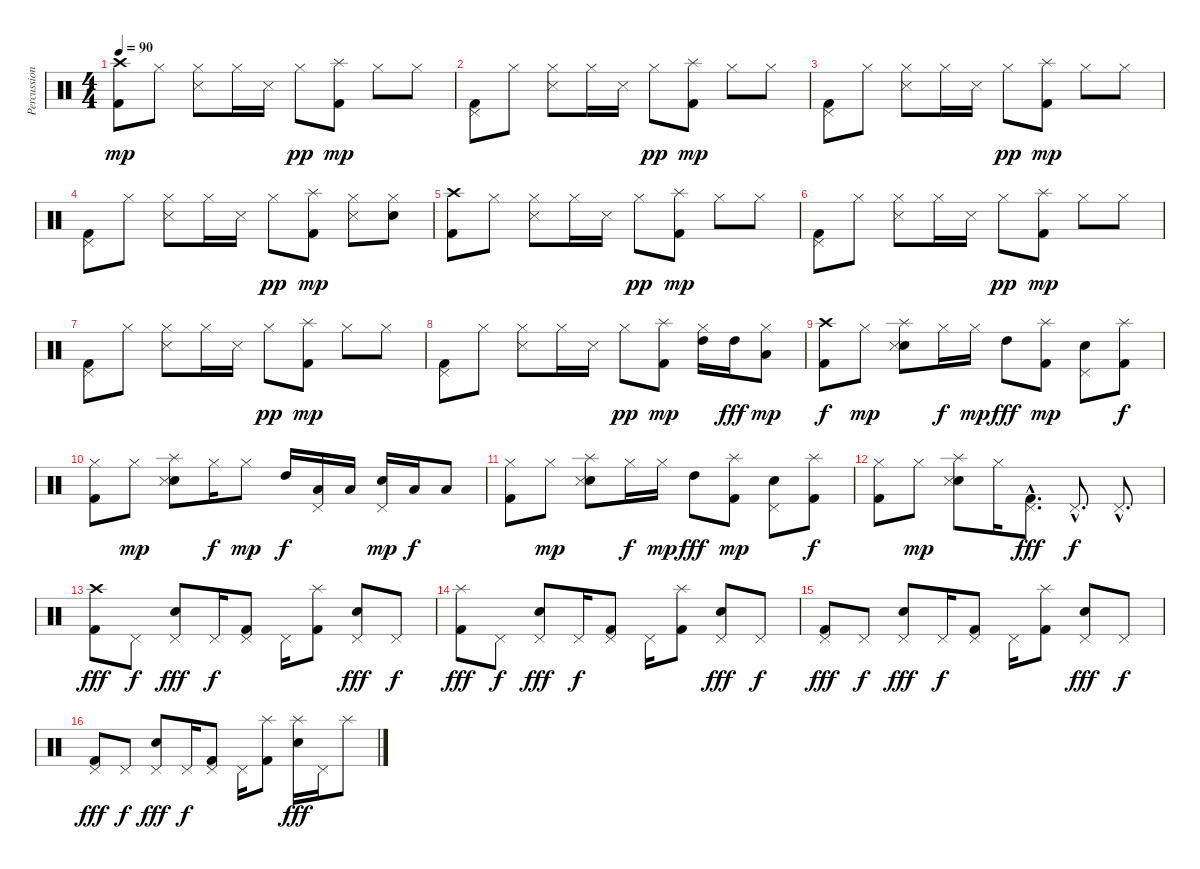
\track ("Percussion" "Percussion") {instrument percussion}
\staff {score}
\articulation defaults
\ts (4 4)
\tempo 90
\clef neutral
\ks c
("Kick (hit) 2" "Crash high (hit)").8{dy mp} "Hi-Hat (closed)".8 ("Snare (side stick) 3" "Hi-Hat (closed)").8 "Hi-Hat (closed)".16 "Snare (side stick) 3".16 "Hi-Hat (closed)".8{dy pp} ("Kick (hit) 2" "Splash (hit)").8{dy mp} "Hi-Hat (closed)".8 "Hi-Hat (closed)".8 |
("Kick (hit) 2" "Pedal Hi-Hat (hit)").8 "Hi-Hat (closed)".8 ("Snare (side stick) 3" "Hi-Hat (closed)").8 "Hi-Hat (closed)".16 "Snare (side stick) 3".16 "Hi-Hat (closed)".8{dy pp} ("Kick (hit) 2" "Splash (hit)").8{dy mp} "Hi-Hat (closed)".8 "Hi-Hat (closed)".8 |
("Kick (hit) 2" "Pedal Hi-Hat (hit)").8 "Hi-Hat (closed)".8 ("Snare (side stick) 3" "Hi-Hat (closed)").8 "Hi-Hat (closed)".16 "Snare (side stick) 3".16 "Hi-Hat (closed)".8{dy pp} ("Kick (hit) 2" "Splash (hit)").8{dy mp} "Hi-Hat (closed)".8 "Hi-Hat (closed)".8 |
("Kick (hit) 2" "Pedal Hi-Hat (hit)").8 "Hi-Hat (closed)".8 ("Snare (side stick) 3" "Hi-Hat (closed)").8 "Hi-Hat (closed)".16 "Snare (side stick) 3".16 "Hi-Hat (closed)".8{dy pp} ("Kick (hit) 2" "Splash (hit)").8{dy mp} ("Snare (side stick) 3" "Hi-Hat (closed)").8 ("Electric Snare (hit)" "Hi-Hat (closed)").8 |
("Kick (hit) 2" "Crash high (hit)").8 "Hi-Hat (closed)".8 ("Snare (side stick) 3" "Hi-Hat (closed)").8 "Hi-Hat (closed)".16 "Snare (side stick) 3".16 "Hi-Hat (closed)".8{dy pp} ("Kick (hit) 2" "Splash (hit)").8{dy mp} "Hi-Hat (closed)".8 "Hi-Hat (closed)".8 |
("Kick (hit) 2" "Pedal Hi-Hat (hit)").8 "Hi-Hat (closed)".8 ("Snare (side stick) 3" "Hi-Hat (closed)").8 "Hi-Hat (closed)".16 "Snare (side stick) 3".16 "Hi-Hat (closed)".8{dy pp} ("Kick (hit) 2" "Splash (hit)").8{dy mp} "Hi-Hat (closed)".8 "Hi-Hat (closed)".8 |
("Kick (hit) 2" "Pedal Hi-Hat (hit)").8 "Hi-Hat (closed)".8 ("Snare (side stick) 3" "Hi-Hat (closed)").8 "Hi-Hat (closed)".16 "Snare (side stick) 3".16 "Hi-Hat (closed)".8{dy pp} ("Kick (hit) 2" "Splash (hit)").8{dy mp} "Hi-Hat (closed)".8 "Hi-Hat (closed)".8 |
("Kick (hit) 2" "Pedal Hi-Hat (hit)").8 "Hi-Hat (closed)".8 ("Snare (side stick) 3" "Hi-Hat (closed)").8 "Hi-Hat (closed)".16 "Snare (side stick) 3".16 "Hi-Hat (closed)".8{dy pp} ("Kick (hit) 2" "Splash (hit)").8{dy mp} ("High Tom (hit)" "Hi-Hat (closed)").16 "High Tom (hit)".16{dy fff} ("Low Tom (hit)" "Hi-Hat (closed)").8{dy mp} |
("Kick (hit) 2" "Crash high (hit)").8{dy f} "Hi-Hat (closed)".8{dy mp} ("Electric Snare (hit)" "Snare (side stick) 3" "Splash (hit)").8 "Hi-Hat (closed)".16{dy f} "Hi-Hat (closed)".16{dy mp} "High Tom (hit)".8{dy fff} ("Kick (hit) 2" "Splash (hit)").8{dy mp} ("Electric Snare (hit)" "Pedal Hi-Hat (hit)").8 ("Kick (hit) 2" "Splash (hit)").8{dy f} |
("Kick (hit) 2" "Hi-Hat (closed)").8 "Hi-Hat (closed)".8{dy mp} ("Electric Snare (hit)" "Snare (side stick) 3" "Splash (hit)").8 "Hi-Hat (closed)".16{dy f} "Hi-Hat (closed)".8{dy mp} "High Tom (hit)".16{dy f} ("Low Tom (hit)" "Pedal Hi-Hat (hit)").16 "Low Tom (hit)".16 ("Electric Snare (hit)" "Pedal Hi-Hat (hit)").16{dy mp} "Low Tom (hit)".16{dy f} "Low Tom (hit)".8 |
("Kick (hit) 2" "Hi-Hat (closed)").8 "Hi-Hat (closed)".8{dy mp} ("Electric Snare (hit)" "Snare (side stick) 3" "Splash (hit)").8 "Hi-Hat (closed)".16{dy f} "Hi-Hat (closed)".16{dy mp} "High Tom (hit)".8{dy fff} ("Kick (hit) 2" "Splash (hit)").8{dy mp} ("Electric Snare (hit)" "Pedal Hi-Hat (hit)").8 ("Kick (hit) 2" "Splash (hit)").8{dy f} |
("Kick (hit) 2" "Hi-Hat (closed)").8 "Hi-Hat (closed)".8{dy mp} ("Electric Snare (hit)" "Snare (side stick) 3" "Splash (hit)").8 "Hi-Hat (closed)".16 ("Kick (hit) 2"{hac} "Pedal Hi-Hat (hit)"{hac}).8{d dy fff} "Pedal Hi-Hat (hit)"{hac}.8{d dy f} "Pedal Hi-Hat (hit)"{hac}.8{d} |
("Kick (hit) 2" "Crash high (hit)").8{dy fff} "Pedal Hi-Hat (hit)".8{dy f} ("Electric Snare (hit)" "Pedal Hi-Hat (hit)").8{dy fff} "Pedal Hi-Hat (hit)".16{dy f} ("Kick (hit) 2" "Pedal Hi-Hat (hit)").8 "Pedal Hi-Hat (hit)".16 ("Kick (hit) 2" "Splash (hit)").8 ("Electric Snare (hit)" "Pedal Hi-Hat (hit)").8{dy fff} "Pedal Hi-Hat (hit)".8{dy f} |
("Kick (hit) 2" "Splash (hit)").8{dy fff} "Pedal Hi-Hat (hit)".8{dy f} ("Electric Snare (hit)" "Pedal Hi-Hat (hit)").8{dy fff} "Pedal Hi-Hat (hit)".16{dy f} ("Kick (hit) 2" "Pedal Hi-Hat (hit)").8 "Pedal Hi-Hat (hit)".16 ("Kick (hit) 2" "Splash (hit)").8 ("Electric Snare (hit)" "Pedal Hi-Hat (hit)").8{dy fff} "Pedal Hi-Hat (hit)".8{dy f} |
("Kick (hit) 2" "Pedal Hi-Hat (hit)").8{dy fff} "Pedal Hi-Hat (hit)".8{dy f} ("Electric Snare (hit)" "Pedal Hi-Hat (hit)").8{dy fff} "Pedal Hi-Hat (hit)".16{dy f} ("Kick (hit) 2" "Pedal Hi-Hat (hit)").8 "Pedal Hi-Hat (hit)".16 ("Kick (hit) 2" "Splash (hit)").8 ("Electric Snare (hit)" "Pedal Hi-Hat (hit)").8{dy fff} "Pedal Hi-Hat (hit)".8{dy f} |
("Kick (hit) 2" "Pedal Hi-Hat (hit)").8{dy fff} "Pedal Hi-Hat (hit)".8{dy f} ("Electric Snare (hit)" "Pedal Hi-Hat (hit)").8{dy fff} "Pedal Hi-Hat (hit)".16{dy f} ("Kick (hit) 2" "Pedal Hi-Hat (hit)").8 "Pedal Hi-Hat (hit)".16 ("Kick (hit) 2" "Splash (hit)").8 ("Electric Snare (hit)" "Splash (hit)").16{dy fff} "Pedal Hi-Hat (hit)".16 "Splash (hit)".8
